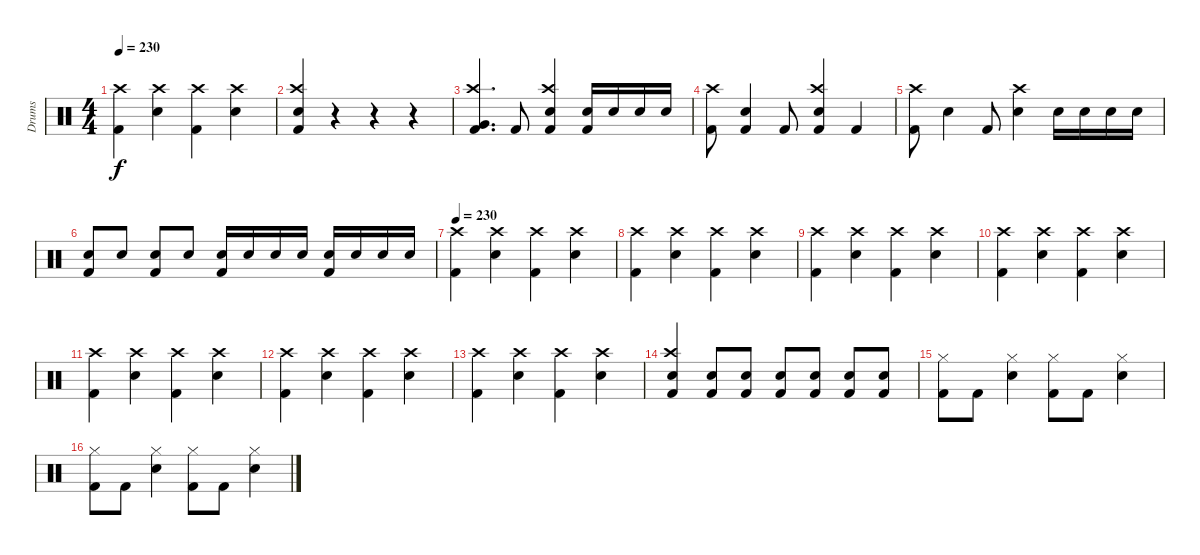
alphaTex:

\track ("Drums" "Drums") {instrument percussion}
\staff {score}
\articulation defaults
\ts (4 4)
\tempo 230
\clef neutral
\ks c
("Kick (hit) 2" "Crash high (hit)").4{dy f} ("Snare (hit) 2" "Crash high (hit)").4 ("Kick (hit) 2" "Crash high (hit)").4 ("Snare (hit) 2" "Crash high (hit)").4 |
("Snare (hit) 2" "Kick (hit) 2" "Crash high (hit)").4 r.4 r.4 r.4 |
("Very Low Tom (hit)" "Kick (hit) 2" "Crash high (hit)").4{d} "Kick (hit) 2".8 ("Snare (hit) 2" "Kick (hit) 2" "Crash high (hit)").4 ("Snare (hit) 2" "Kick (hit) 2").16 "Snare (hit) 2".16 "Snare (hit) 2".16 "Snare (hit) 2".16 |
("Kick (hit) 2" "Crash high (hit)").8 ("Snare (hit) 2" "Kick (hit) 2").4 "Kick (hit) 2".8 ("Snare (hit) 2" "Kick (hit) 2" "Crash high (hit)").4 "Kick (hit) 2".4 |
("Kick (hit) 2" "Crash high (hit)").8 "Snare (hit) 2".4 "Kick (hit) 2".8 ("Snare (hit) 2" "Crash high (hit)").4 "Snare (hit) 2".16 "Snare (hit) 2".16 "Snare (hit) 2".16 "Snare (hit) 2".16 |
("Snare (hit) 2" "Kick (hit) 2").8 "Snare (hit) 2".8 ("Snare (hit) 2" "Kick (hit) 2").8 "Snare (hit) 2".8 ("Snare (hit) 2" "Kick (hit) 2").16 "Snare (hit) 2".16 "Snare (hit) 2".16 "Snare (hit) 2".16 ("Snare (hit) 2" "Kick (hit) 2").16 "Snare (hit) 2".16 "Snare (hit) 2".16 "Snare (hit) 2".16 |
\tempo 230
("Kick (hit) 2" "Crash high (hit)").4 ("Snare (hit) 2" "Crash high (hit)").4 ("Kick (hit) 2" "Crash high (hit)").4 ("Snare (hit) 2" "Crash high (hit)").4 |
("Kick (hit) 2" "Crash high (hit)").4 ("Snare (hit) 2" "Crash high (hit)").4 ("Kick (hit) 2" "Crash high (hit)").4 ("Snare (hit) 2" "Crash high (hit)").4 |
("Kick (hit) 2" "Crash high (hit)").4 ("Snare (hit) 2" "Crash high (hit)").4 ("Kick (hit) 2" "Crash high (hit)").4 ("Snare (hit) 2" "Crash high (hit)").4 |
("Kick (hit) 2" "Crash high (hit)").4 ("Snare (hit) 2" "Crash high (hit)").4 ("Kick (hit) 2" "Crash high (hit)").4 ("Snare (hit) 2" "Crash high (hit)").4 |
("Kick (hit) 2" "Crash high (hit)").4 ("Snare (hit) 2" "Crash high (hit)").4 ("Kick (hit) 2" "Crash high (hit)").4 ("Snare (hit) 2" "Crash high (hit)").4 |
("Kick (hit) 2" "Crash high (hit)").4 ("Snare (hit) 2" "Crash high (hit)").4 ("Kick (hit) 2" "Crash high (hit)").4 ("Snare (hit) 2" "Crash high (hit)").4 |
("Kick (hit) 2" "Crash high (hit)").4 ("Snare (hit) 2" "Crash high (hit)").4 ("Kick (hit) 2" "Crash high (hit)").4 ("Snare (hit) 2" "Crash high (hit)").4 |
("Snare (hit) 2" "Kick (hit) 2" "Crash high (hit)").4 ("Snare (hit) 2" "Kick (hit) 2").8 ("Snare (hit) 2" "Kick (hit) 2").8 ("Snare (hit) 2" "Kick (hit) 2").8 ("Snare (hit) 2" "Kick (hit) 2").8 ("Snare (hit) 2" "Kick (hit) 2").8 ("Snare (hit) 2" "Kick (hit) 2").8 |
("Kick (hit) 2" "Hi-Hat (closed)").8 "Kick (hit) 2".8 ("Snare (hit) 2" "Hi-Hat (closed)").4 ("Kick (hit) 2" "Hi-Hat (closed)").8 "Kick (hit) 2".8 ("Snare (hit) 2" "Hi-Hat (closed)").4 |
("Kick (hit) 2" "Hi-Hat (closed)").8 "Kick (hit) 2".8 ("Snare (hit) 2" "Hi-Hat (closed)").4 ("Kick (hit) 2" "Hi-Hat (closed)").8 "Kick (hit) 2".8 ("Snare (hit) 2" "Hi-Hat (closed)").4
